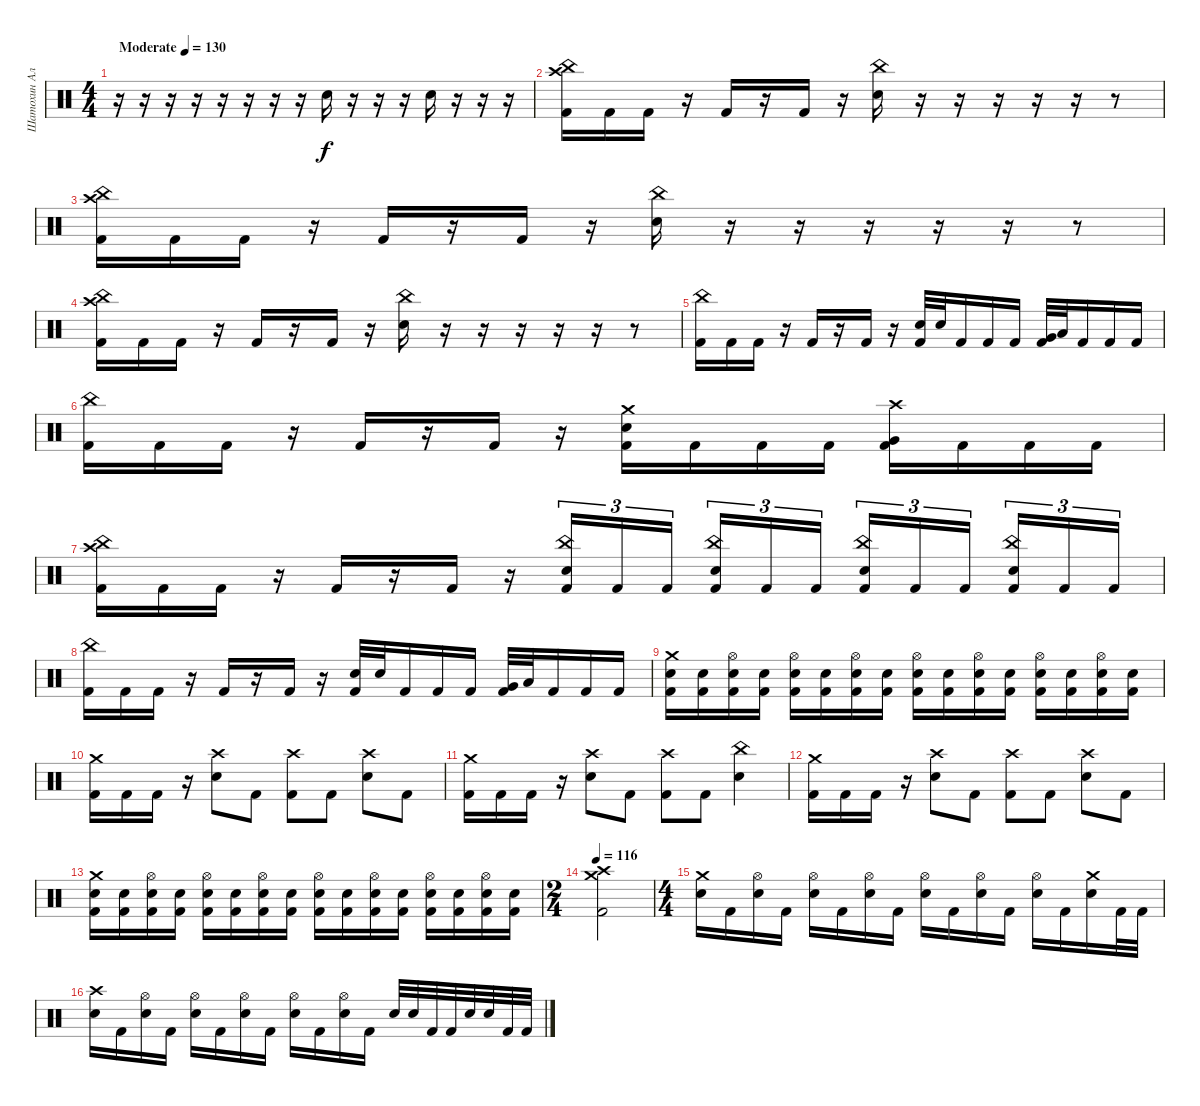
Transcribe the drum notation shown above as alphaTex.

\track ("Шатохин Алексей" "Шатохин Ал") {instrument percussion}
\staff {score}
\articulation defaults
\ts (4 4)
\tempo (130 "Moderate")
\clef neutral
\ks c
r.16{dy f} r.16 r.16 r.16 r.16 r.16 r.16 r.16 "Electric Snare (hit)".16 r.16 r.16 r.16 "Electric Snare (hit)".16 r.16 r.16 r.16 |
("China (hit)" "Crash high (hit)" "Kick (hit) 2").16 "Kick (hit) 2".16 "Kick (hit) 2".16 r.16 "Kick (hit) 2".16 r.16 "Kick (hit) 2".16 r.16 ("China (hit)" "Electric Snare (hit)").16 r.16 r.16 r.16 r.16 r.16 r.8 |
("China (hit)" "Crash high (hit)" "Kick (hit) 2").16 "Kick (hit) 2".16 "Kick (hit) 2".16 r.16 "Kick (hit) 2".16 r.16 "Kick (hit) 2".16 r.16 ("China (hit)" "Electric Snare (hit)").16 r.16 r.16 r.16 r.16 r.16 r.8 |
("China (hit)" "Crash high (hit)" "Kick (hit) 2").16 "Kick (hit) 2".16 "Kick (hit) 2".16 r.16 "Kick (hit) 2".16 r.16 "Kick (hit) 2".16 r.16 ("China (hit)" "Electric Snare (hit)").16 r.16 r.16 r.16 r.16 r.16 r.8 |
("China (hit)" "Kick (hit) 2").16 "Kick (hit) 2".16 "Kick (hit) 2".16 r.16 "Kick (hit) 2".16 r.16 "Kick (hit) 2".16 r.16 ("Electric Snare (hit)" "Kick (hit) 2").32 "Electric Snare (hit)".32 "Kick (hit) 2".16 "Kick (hit) 2".16 "Kick (hit) 2".16 ("Very Low Tom (hit)" "Kick (hit) 2").32 "Low Floor Tom (hit)".32 "Kick (hit) 2".16 "Kick (hit) 2".16 "Kick (hit) 2".16 |
("China (hit)" "Kick (hit) 2").16 "Kick (hit) 2".16 "Kick (hit) 2".16 r.16 "Kick (hit) 2".16 r.16 "Kick (hit) 2".16 r.16 ("Crash medium (hit)" "Electric Snare (hit)" "Kick (hit) 2").16 "Kick (hit) 2".16 "Kick (hit) 2".16 "Kick (hit) 2".16 ("Crash high (hit)" "Very Low Tom (hit)" "Kick (hit) 2").16 "Kick (hit) 2".16 "Kick (hit) 2".16 "Kick (hit) 2".16 |
("China (hit)" "Crash high (hit)" "Kick (hit) 2").16 "Kick (hit) 2".16 "Kick (hit) 2".16 r.16 "Kick (hit) 2".16 r.16 "Kick (hit) 2".16 r.16 ("China (hit)" "Electric Snare (hit)" "Kick (hit) 2").16{tu (3 2)} "Kick (hit) 2".16{tu (3 2)} "Kick (hit) 2".16{tu (3 2) beam splitsecondary} ("China (hit)" "Electric Snare (hit)" "Kick (hit) 2").16{tu (3 2)} "Kick (hit) 2".16{tu (3 2)} "Kick (hit) 2".16{tu (3 2)} ("China (hit)" "Electric Snare (hit)" "Kick (hit) 2").16{tu (3 2)} "Kick (hit) 2".16{tu (3 2)} "Kick (hit) 2".16{tu (3 2) beam splitsecondary} ("China (hit)" "Electric Snare (hit)" "Kick (hit) 2").16{tu (3 2)} "Kick (hit) 2".16{tu (3 2)} "Kick (hit) 2".16{tu (3 2)} |
("China (hit)" "Kick (hit) 2").16 "Kick (hit) 2".16 "Kick (hit) 2".16 r.16 "Kick (hit) 2".16 r.16 "Kick (hit) 2".16 r.16 ("Electric Snare (hit)" "Kick (hit) 2").32 "Electric Snare (hit)".32 "Kick (hit) 2".16 "Kick (hit) 2".16 "Kick (hit) 2".16 ("Very Low Tom (hit)" "Kick (hit) 2").32 "Low Floor Tom (hit)".32 "Kick (hit) 2".16 "Kick (hit) 2".16 "Kick (hit) 2".16 |
("Crash medium (hit)" "Electric Snare (hit)" "Kick (hit) 2").16 ("Electric Snare (hit)" "Kick (hit) 2").16 ("Hi-Hat (open)" "Electric Snare (hit)" "Kick (hit) 2").16 ("Electric Snare (hit)" "Kick (hit) 2").16 ("Hi-Hat (open)" "Electric Snare (hit)" "Kick (hit) 2").16 ("Electric Snare (hit)" "Kick (hit) 2").16 ("Hi-Hat (open)" "Electric Snare (hit)" "Kick (hit) 2").16 ("Electric Snare (hit)" "Kick (hit) 2").16 ("Hi-Hat (open)" "Electric Snare (hit)" "Kick (hit) 2").16 ("Electric Snare (hit)" "Kick (hit) 2").16 ("Hi-Hat (open)" "Electric Snare (hit)" "Kick (hit) 2").16 ("Electric Snare (hit)" "Kick (hit) 2").16 ("Hi-Hat (open)" "Electric Snare (hit)" "Kick (hit) 2").16 ("Electric Snare (hit)" "Kick (hit) 2").16 ("Hi-Hat (open)" "Electric Snare (hit)" "Kick (hit) 2").16 ("Electric Snare (hit)" "Kick (hit) 2").16 |
("Crash medium (hit)" "Kick (hit) 2").16 "Kick (hit) 2".16 "Kick (hit) 2".16 r.16 ("Crash high (hit)" "Electric Snare (hit)").8 "Kick (hit) 2".8 ("Crash high (hit)" "Kick (hit) 2").8 "Kick (hit) 2".8 ("Crash high (hit)" "Electric Snare (hit)").8 "Kick (hit) 2".8 |
("Crash medium (hit)" "Kick (hit) 2").16 "Kick (hit) 2".16 "Kick (hit) 2".16 r.16 ("Crash high (hit)" "Electric Snare (hit)").8 "Kick (hit) 2".8 ("Crash high (hit)" "Kick (hit) 2").8 "Kick (hit) 2".8 ("China (hit)" "Electric Snare (hit)").4 |
("Crash medium (hit)" "Kick (hit) 2").16 "Kick (hit) 2".16 "Kick (hit) 2".16 r.16 ("Crash high (hit)" "Electric Snare (hit)").8 "Kick (hit) 2".8 ("Crash high (hit)" "Kick (hit) 2").8 "Kick (hit) 2".8 ("Crash high (hit)" "Electric Snare (hit)").8 "Kick (hit) 2".8 |
("Crash medium (hit)" "Electric Snare (hit)" "Kick (hit) 2").16 ("Electric Snare (hit)" "Kick (hit) 2").16 ("Hi-Hat (open)" "Electric Snare (hit)" "Kick (hit) 2").16 ("Electric Snare (hit)" "Kick (hit) 2").16 ("Hi-Hat (open)" "Electric Snare (hit)" "Kick (hit) 2").16 ("Electric Snare (hit)" "Kick (hit) 2").16 ("Hi-Hat (open)" "Electric Snare (hit)" "Kick (hit) 2").16 ("Electric Snare (hit)" "Kick (hit) 2").16 ("Hi-Hat (open)" "Electric Snare (hit)" "Kick (hit) 2").16 ("Electric Snare (hit)" "Kick (hit) 2").16 ("Hi-Hat (open)" "Electric Snare (hit)" "Kick (hit) 2").16 ("Electric Snare (hit)" "Kick (hit) 2").16 ("Hi-Hat (open)" "Electric Snare (hit)" "Kick (hit) 2").16 ("Electric Snare (hit)" "Kick (hit) 2").16 ("Hi-Hat (open)" "Electric Snare (hit)" "Kick (hit) 2").16 ("Electric Snare (hit)" "Kick (hit) 2").16 |
\ts (2 4)
\tempo 116
("Crash medium (hit)" "Crash high (hit)" "Kick (hit) 2").2 |
\ts (4 4)
("Crash medium (hit)" "Electric Snare (hit)").16 "Kick (hit) 2".16 ("Hi-Hat (open)" "Electric Snare (hit)").16 "Kick (hit) 2".16 ("Hi-Hat (open)" "Electric Snare (hit)").16 "Kick (hit) 2".16 ("Hi-Hat (open)" "Electric Snare (hit)").16 "Kick (hit) 2".16 ("Hi-Hat (open)" "Electric Snare (hit)").16 "Kick (hit) 2".16 ("Hi-Hat (open)" "Electric Snare (hit)").16 "Kick (hit) 2".16 ("Hi-Hat (open)" "Electric Snare (hit)").16 "Kick (hit) 2".16 ("Crash medium (hit)" "Electric Snare (hit)").16 "Kick (hit) 2".32 "Kick (hit) 2".32 |
("Crash high (hit)" "Electric Snare (hit)").16 "Kick (hit) 2".16 ("Hi-Hat (open)" "Electric Snare (hit)").16 "Kick (hit) 2".16 ("Hi-Hat (open)" "Electric Snare (hit)").16 "Kick (hit) 2".16 ("Hi-Hat (open)" "Electric Snare (hit)").16 "Kick (hit) 2".16 ("Hi-Hat (open)" "Electric Snare (hit)").16 "Kick (hit) 2".16 ("Hi-Hat (open)" "Electric Snare (hit)").16 "Kick (hit) 2".16 "Electric Snare (hit)".32 "Electric Snare (hit)".32 "Kick (hit) 2".32 "Kick (hit) 2".32 "Electric Snare (hit)".32 "Electric Snare (hit)".32 "Kick (hit) 2".32 "Kick (hit) 2".32
